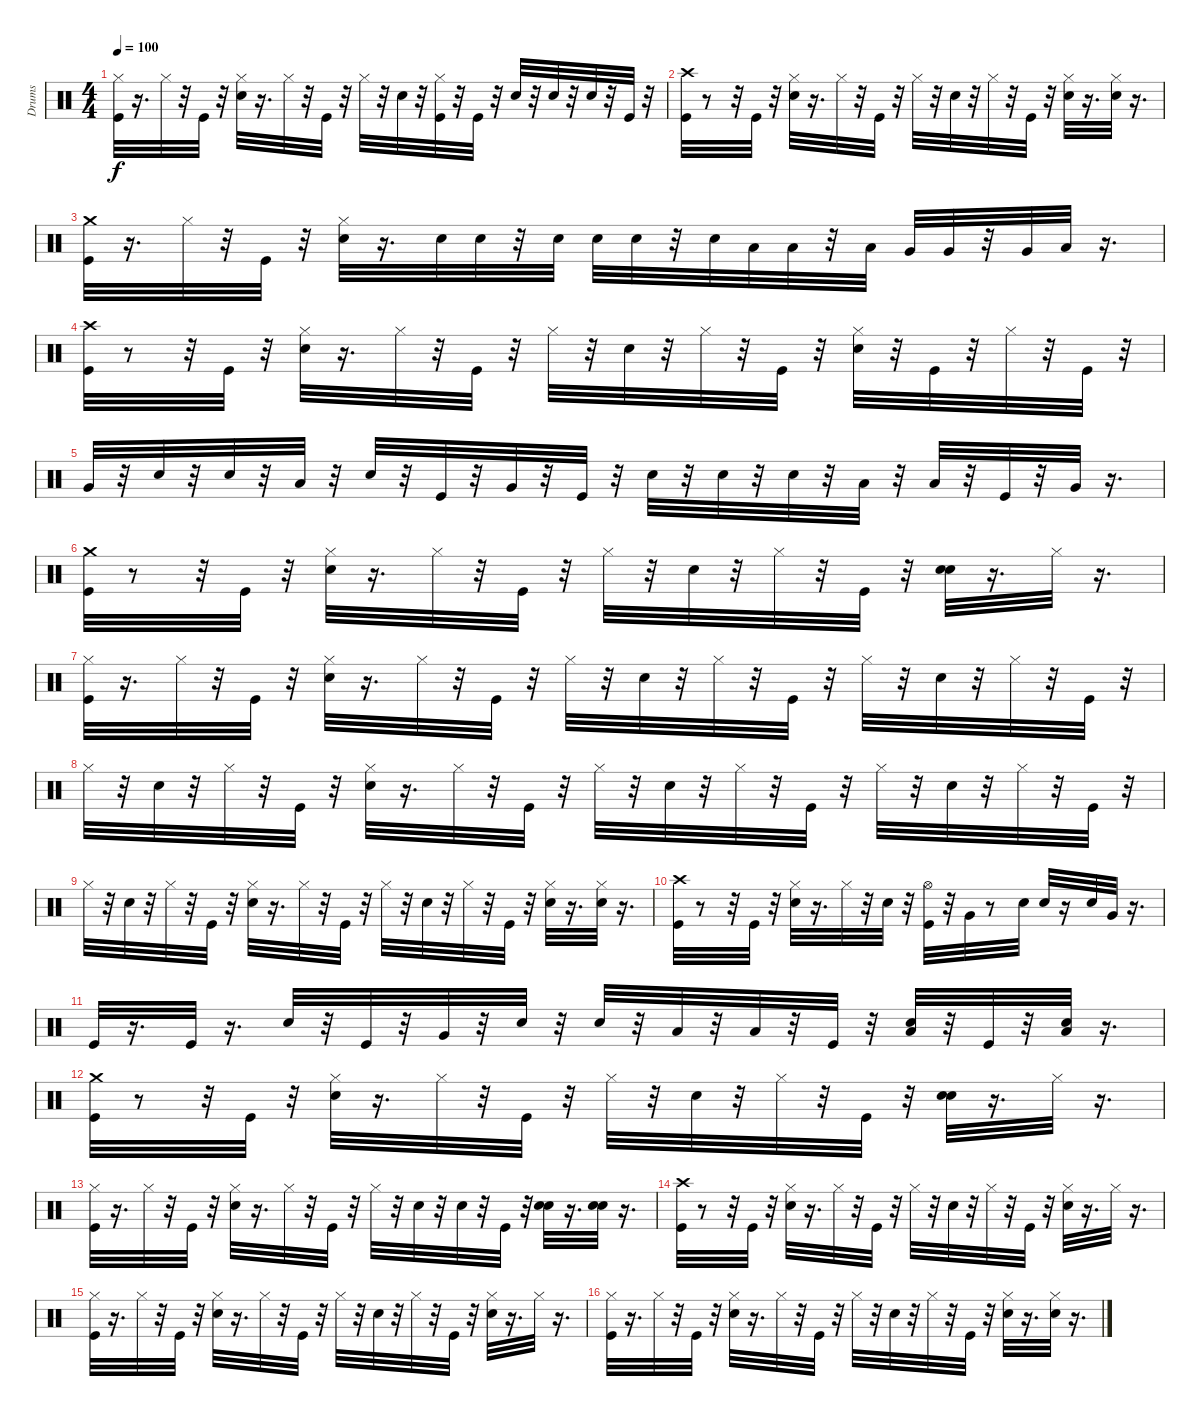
\track ("Drums" "Drums") {instrument percussion}
\staff {score}
\articulation defaults
\ts (4 4)
\tempo 100
\clef neutral
\ks c
("Kick (hit)" "Hi-Hat (closed)").32{dy f} r.16{d} "Hi-Hat (closed)".32 r.32 "Kick (hit)".32 r.32 ("Snare (hit) 2" "Hi-Hat (closed)").32 r.16{d} "Hi-Hat (closed)".32 r.32 "Kick (hit)".32 r.32 "Hi-Hat (closed)".32 r.32 "Snare (hit) 2".32 r.32 ("Kick (hit)" "Hi-Hat (closed)").32 r.32 "Kick (hit)".32 r.32 "Electric Snare (hit)".32 r.32 "Electric Snare (hit)".32 r.32 "Electric Snare (hit)".32 r.32 "Kick (hit)".32 r.32 |
("Kick (hit)" "Crash high (hit)").32 r.8 r.32 "Kick (hit)".32 r.32 ("Hi-Hat (closed)" "Snare (hit) 2").32 r.16{d} "Hi-Hat (closed)".32 r.32 "Kick (hit)".32 r.32 "Hi-Hat (closed)".32 r.32 "Snare (hit) 2".32 r.32 "Hi-Hat (closed)".32 r.32 "Kick (hit)".32 r.32 ("Hi-Hat (closed)" "Snare (hit) 2").32 r.16{d} ("Hi-Hat (closed)" "Snare (hit) 2").32 r.16{d} |
("Kick (hit)" "Crash medium (hit)").32 r.16{d} "Hi-Hat (closed)".32 r.32 "Kick (hit)".32 r.32 ("Snare (hit) 2" "Hi-Hat (closed)").32 r.16{d} "Snare (hit) 2".32 "Snare (hit) 2".32 r.32 "Snare (hit) 2".32 "Electric Snare (hit)".32 "Electric Snare (hit)".32 r.32 "Electric Snare (hit)".32 "Low Tom (hit)".32 "Low Tom (hit)".32 r.32 "Low Tom (hit)".32 "Very Low Tom (hit)".32 "Very Low Tom (hit)".32 r.32 "Very Low Tom (hit)".32 "Low Floor Tom (hit)".32 r.16{d} |
("Kick (hit)" "Crash high (hit)").32 r.8 r.32 "Kick (hit)".32 r.32 ("Hi-Hat (closed)" "Snare (hit) 2").32 r.16{d} "Hi-Hat (closed)".32 r.32 "Kick (hit)".32 r.32 "Hi-Hat (closed)".32 r.32 "Snare (hit) 2".32 r.32 "Hi-Hat (closed)".32 r.32 "Kick (hit)".32 r.32 ("Hi-Hat (closed)" "Snare (hit) 2").32 r.32 "Kick (hit)".32 r.32 "Hi-Hat (closed)".32 r.32 "Kick (hit)".32 r.32 |
"Very Low Tom (hit)".32 r.32 "Snare (hit) 2".32 r.32 "Snare (hit) 2".32 r.32 "Low Tom (hit)".32 r.32 "Snare (hit) 2".32 r.32 "Kick (hit)".32 r.32 "Very Low Tom (hit)".32 r.32 "Kick (hit)".32 r.32 "Electric Snare (hit)".32 r.32 "Electric Snare (hit)".32 r.32 "Electric Snare (hit)".32 r.32 "Low Tom (hit)".32 r.32 "Low Tom (hit)".32 r.32 "Kick (hit)".32 r.32 "Very Low Tom (hit)".32 r.16{d} |
("Crash medium (hit)" "Kick (hit)").32 r.8 r.32 "Kick (hit)".32 r.32 ("Hi-Hat (closed)" "Snare (hit) 2").32 r.16{d} "Hi-Hat (closed)".32 r.32 "Kick (hit)".32 r.32 "Hi-Hat (closed)".32 r.32 "Snare (hit) 2".32 r.32 "Hi-Hat (closed)".32 r.32 "Kick (hit)".32 r.32 ("Electric Snare (hit)" "Snare (hit) 2").32 r.16{d} "Hi-Hat (closed)".32 r.16{d} |
("Kick (hit)" "Hi-Hat (closed)").32 r.16{d} "Hi-Hat (closed)".32 r.32 "Kick (hit)".32 r.32 ("Snare (hit) 2" "Hi-Hat (closed)").32 r.16{d} "Hi-Hat (closed)".32 r.32 "Kick (hit)".32 r.32 "Hi-Hat (closed)".32 r.32 "Snare (hit) 2".32 r.32 "Hi-Hat (closed)".32 r.32 "Kick (hit)".32 r.32 "Hi-Hat (closed)".32 r.32 "Snare (hit) 2".32 r.32 "Hi-Hat (closed)".32 r.32 "Kick (hit)".32 r.32 |
"Hi-Hat (closed)".32 r.32 "Snare (hit) 2".32 r.32 "Hi-Hat (closed)".32 r.32 "Kick (hit)".32 r.32 ("Snare (hit) 2" "Hi-Hat (closed)").32 r.16{d} "Hi-Hat (closed)".32 r.32 "Kick (hit)".32 r.32 "Hi-Hat (closed)".32 r.32 "Snare (hit) 2".32 r.32 "Hi-Hat (closed)".32 r.32 "Kick (hit)".32 r.32 "Hi-Hat (closed)".32 r.32 "Snare (hit) 2".32 r.32 "Hi-Hat (closed)".32 r.32 "Kick (hit)".32 r.32 |
"Hi-Hat (closed)".32 r.32 "Snare (hit) 2".32 r.32 "Hi-Hat (closed)".32 r.32 "Kick (hit)".32 r.32 ("Snare (hit) 2" "Hi-Hat (closed)").32 r.16{d} "Hi-Hat (closed)".32 r.32 "Kick (hit)".32 r.32 "Hi-Hat (closed)".32 r.32 "Snare (hit) 2".32 r.32 "Hi-Hat (closed)".32 r.32 "Kick (hit)".32 r.32 ("Snare (hit) 2" "Hi-Hat (closed)").32 r.16{d} ("Snare (hit) 2" "Hi-Hat (closed)").32 r.16{d} |
("Kick (hit)" "Crash high (hit)").32 r.8 r.32 "Kick (hit)".32 r.32 ("Snare (hit) 2" "Hi-Hat (closed)").32 r.16{d} "Hi-Hat (closed)".32 r.32 "Snare (hit) 2".32 r.32 ("Kick (hit)" "Hi-Hat (open)").32 r.32 "Very Low Tom (hit)".32 r.8 "Snare (hit) 2".32 "Snare (hit) 2".32 r.16 "Snare (hit) 2".32 "Very Low Tom (hit)".32 r.16{d} |
"Kick (hit)".32 r.16{d} "Kick (hit)".32 r.16{d} "Snare (hit) 2".32 r.32 "Kick (hit)".32 r.32 "Very Low Tom (hit)".32 r.32 "Snare (hit) 2".32 r.32 "Snare (hit) 2".32 r.32 "Low Tom (hit)".32 r.32 "Low Tom (hit)".32 r.32 "Kick (hit)".32 r.32 ("Low Tom (hit)" "Snare (hit) 2").32 r.32 "Kick (hit)".32 r.32 ("Low Tom (hit)" "Snare (hit) 2").32 r.16{d} |
("Kick (hit)" "Crash medium (hit)").32 r.8 r.32 "Kick (hit)".32 r.32 ("Hi-Hat (closed)" "Snare (hit) 2").32 r.16{d} "Hi-Hat (closed)".32 r.32 "Kick (hit)".32 r.32 "Hi-Hat (closed)".32 r.32 "Snare (hit) 2".32 r.32 "Hi-Hat (closed)".32 r.32 "Kick (hit)".32 r.32 ("Electric Snare (hit)" "Snare (hit) 2").32 r.16{d} "Hi-Hat (closed)".32 r.16{d} |
("Kick (hit)" "Hi-Hat (closed)").32 r.16{d} "Hi-Hat (closed)".32 r.32 "Kick (hit)".32 r.32 ("Snare (hit) 2" "Hi-Hat (closed)").32 r.16{d} "Hi-Hat (closed)".32 r.32 "Kick (hit)".32 r.32 "Hi-Hat (closed)".32 r.32 "Snare (hit) 2".32 r.32 "Snare (hit) 2".32 r.32 "Kick (hit)".32 r.32 ("Electric Snare (hit)" "Snare (hit) 2").32 r.16{d} ("Electric Snare (hit)" "Snare (hit) 2").32 r.16{d} |
("Kick (hit)" "Crash high (hit)").32 r.8 r.32 "Kick (hit)".32 r.32 ("Hi-Hat (closed)" "Snare (hit) 2").32 r.16{d} "Hi-Hat (closed)".32 r.32 "Kick (hit)".32 r.32 "Hi-Hat (closed)".32 r.32 "Snare (hit) 2".32 r.32 "Hi-Hat (closed)".32 r.32 "Kick (hit)".32 r.32 ("Hi-Hat (closed)" "Snare (hit) 2").32 r.16{d} "Hi-Hat (closed)".32 r.16{d} |
("Kick (hit)" "Hi-Hat (closed)").32 r.16{d} "Hi-Hat (closed)".32 r.32 "Kick (hit)".32 r.32 ("Snare (hit) 2" "Hi-Hat (closed)").32 r.16{d} "Hi-Hat (closed)".32 r.32 "Kick (hit)".32 r.32 "Hi-Hat (closed)".32 r.32 "Snare (hit) 2".32 r.32 "Hi-Hat (closed)".32 r.32 "Kick (hit)".32 r.32 ("Snare (hit) 2" "Hi-Hat (closed)").32 r.16{d} "Hi-Hat (closed)".32 r.16{d} |
("Hi-Hat (closed)" "Kick (hit)").32 r.16{d} "Hi-Hat (closed)".32 r.32 "Kick (hit)".32 r.32 ("Hi-Hat (closed)" "Snare (hit) 2").32 r.16{d} "Hi-Hat (closed)".32 r.32 "Kick (hit)".32 r.32 "Hi-Hat (closed)".32 r.32 "Snare (hit) 2".32 r.32 "Hi-Hat (closed)".32 r.32 "Kick (hit)".32 r.32 ("Hi-Hat (closed)" "Snare (hit) 2").32 r.16{d} ("Hi-Hat (closed)" "Snare (hit) 2").32 r.16{d}
